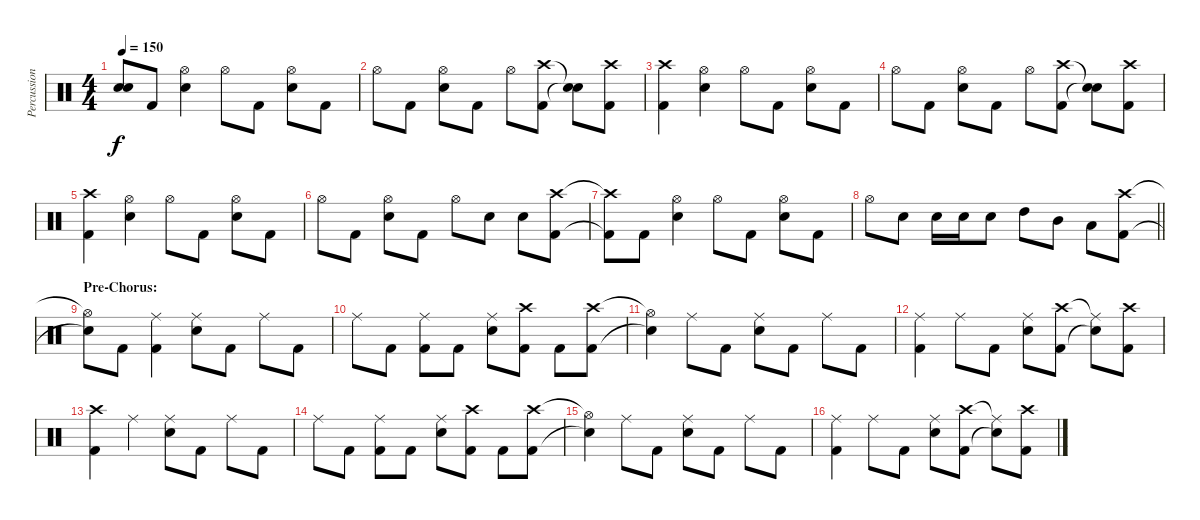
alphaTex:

\track ("Percussion" "Percussion") {instrument percussion}
\staff {score}
\articulation defaults
\ts (4 4)
\tempo 150
\clef neutral
\ks c
("Snare (hit)"{t} "Snare (hit)"{t}).8{dy f} "Kick (hit) 2".8 ("Hi-Hat (open)" "Snare (hit) 2").4 "Hi-Hat (open)".8 "Kick (hit) 2".8 ("Hi-Hat (open)" "Snare (hit) 2").8 "Kick (hit) 2".8 |
"Hi-Hat (open)".8 "Kick (hit) 2".8 ("Hi-Hat (open)" "Snare (hit) 2").8 "Kick (hit) 2".8 "Hi-Hat (open)".8 ("Crash high (hit)" "Kick (hit) 2").8 ("Snare (hit)"{t} "Snare (hit)"{t}).8 ("Crash high (hit)" "Kick (hit) 2").8 |
("Crash high (hit)" "Kick (hit) 2").4 ("Hi-Hat (open)" "Snare (hit) 2").4 "Hi-Hat (open)".8 "Kick (hit) 2".8 ("Hi-Hat (open)" "Snare (hit) 2").8 "Kick (hit) 2".8 |
"Hi-Hat (open)".8 "Kick (hit) 2".8 ("Hi-Hat (open)" "Snare (hit) 2").8 "Kick (hit) 2".8 "Hi-Hat (open)".8 ("Crash high (hit)" "Kick (hit) 2").8 ("Snare (hit)"{t} "Snare (hit)"{t}).8 ("Crash high (hit)" "Kick (hit) 2").8 |
("Crash high (hit)" "Kick (hit) 2").4 ("Hi-Hat (open)" "Snare (hit) 2").4 "Hi-Hat (open)".8 "Kick (hit) 2".8 ("Hi-Hat (open)" "Snare (hit) 2").8 "Kick (hit) 2".8 |
"Hi-Hat (open)".8 "Kick (hit) 2".8 ("Hi-Hat (open)" "Snare (hit) 2").8 "Kick (hit) 2".8 "Hi-Hat (open)".8 "Snare (hit) 2".8 "Snare (hit) 2".8 ("Crash high (hit)" "Kick (hit) 2").8 |
("Crash high (hit)"{t} "Kick (hit) 2"{t}).8 "Kick (hit) 2".8 ("Hi-Hat (open)" "Snare (hit) 2").4 "Hi-Hat (open)".8 "Kick (hit) 2".8 ("Hi-Hat (open)" "Snare (hit) 2").8 "Kick (hit) 2".8 |
\barLineRight lightlight "Hi-Hat (open)".8 "Snare (hit) 2".8 "Snare (hit) 2".16 "Snare (hit) 2".16 "Snare (hit) 2".8 "High Tom (hit)".8 "Mid Tom (hit)".8 "Low Tom (hit)".8
("Crash high (hit)" "Kick (hit) 2").8 |
\section ("" "Pre-Chorus:")
("Hi-Hat (open)"{t} "Snare (hit)"{t}).8 "Kick (hit) 2".8 ("Ride (middle)" "Kick (hit) 2").4 ("Ride (middle)" "Snare (hit) 2").8 "Kick (hit) 2".8 "Ride (middle)".8 "Kick (hit) 2".8 |
"Ride (middle)".8 "Kick (hit) 2".8 ("Ride (middle)" "Kick (hit) 2").8 "Kick (hit) 2".8 ("Ride (middle)" "Snare (hit) 2").8 ("Crash high (hit)" "Kick (hit) 2").8 "Kick (hit) 2".8 ("Crash high (hit)" "Kick (hit) 2").8 |
("Hi-Hat (open)"{t} "Snare (hit)"{t}).4 "Ride (middle)".8 "Kick (hit) 2".8 ("Ride (middle)" "Snare (hit) 2").8 "Kick (hit) 2".8 "Ride (middle)".8 "Kick (hit) 2".8 |
("Ride (middle)" "Kick (hit) 2").4 "Ride (middle)".8 "Kick (hit) 2".8 ("Ride (middle)" "Snare (hit) 2").8 ("Crash high (hit)" "Kick (hit) 2").8 ("Ride (middle)"{t} "Snare (hit) 2"{t}).8 ("Crash high (hit)" "Kick (hit) 2").8 |
("Crash high (hit)" "Kick (hit) 2").4 "Ride (middle)".4 ("Ride (middle)" "Snare (hit) 2").8 "Kick (hit) 2".8 "Ride (middle)".8 "Kick (hit) 2".8 |
"Ride (middle)".8 "Kick (hit) 2".8 ("Ride (middle)" "Kick (hit) 2").8 "Kick (hit) 2".8 ("Ride (middle)" "Snare (hit) 2").8 ("Crash high (hit)" "Kick (hit) 2").8 "Kick (hit) 2".8 ("Crash high (hit)" "Kick (hit) 2").8 |
("Hi-Hat (open)"{t} "Snare (hit)"{t}).4 "Ride (middle)".8 "Kick (hit) 2".8 ("Ride (middle)" "Snare (hit) 2").8 "Kick (hit) 2".8 "Ride (middle)".8 "Kick (hit) 2".8 |
("Ride (middle)" "Kick (hit) 2").4 "Ride (middle)".8 "Kick (hit) 2".8 ("Ride (middle)" "Snare (hit) 2").8 ("Crash high (hit)" "Kick (hit) 2").8 ("Ride (middle)"{t} "Snare (hit) 2"{t}).8 ("Crash high (hit)" "Kick (hit) 2").8
